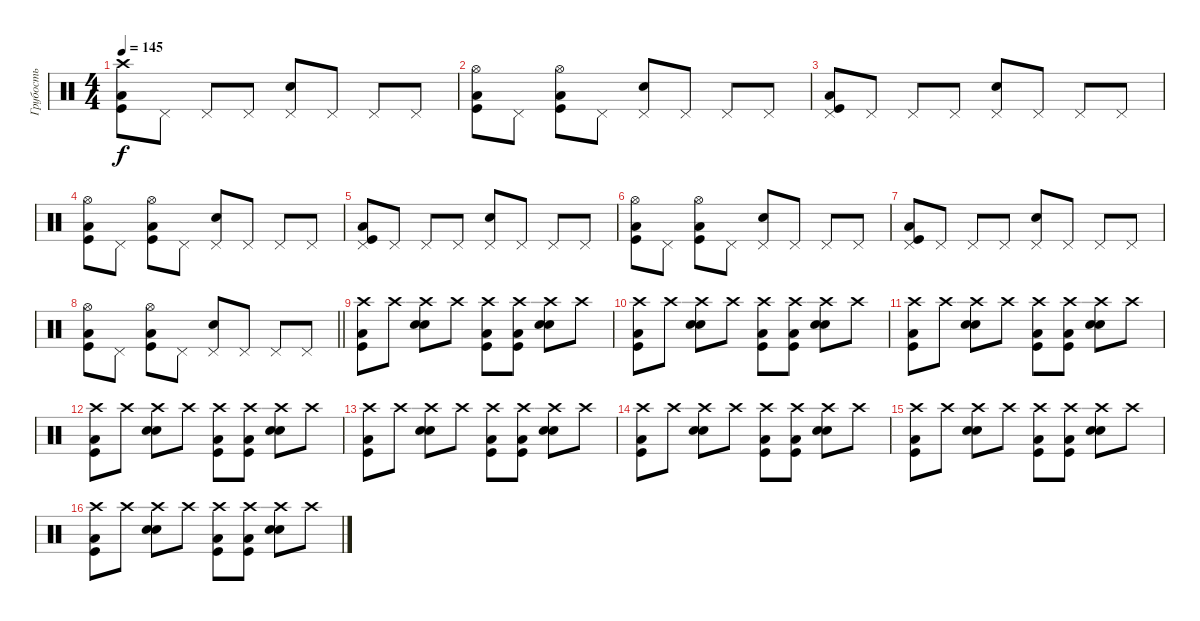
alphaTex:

\track ("Грубость" "Грубость") {instrument percussion}
\staff {score}
\articulation defaults
\ts (4 4)
\tempo 145
\clef neutral
\ks c
("Crash high (hit)" "Low Tom (hit)" "Kick (hit)").8{dy f} "Pedal Hi-Hat (hit)".8 "Pedal Hi-Hat (hit)".8 "Pedal Hi-Hat (hit)".8 ("Pedal Hi-Hat (hit)" "Electric Snare (hit)").8 "Pedal Hi-Hat (hit)".8 "Pedal Hi-Hat (hit)".8 "Pedal Hi-Hat (hit)".8 |
("Hi-Hat (open)" "Low Tom (hit)" "Kick (hit)").8 "Pedal Hi-Hat (hit)".8 ("Hi-Hat (open)" "Low Tom (hit)" "Kick (hit)").8 "Pedal Hi-Hat (hit)".8 ("Pedal Hi-Hat (hit)" "Electric Snare (hit)").8 "Pedal Hi-Hat (hit)".8 "Pedal Hi-Hat (hit)".8 "Pedal Hi-Hat (hit)".8 |
("Pedal Hi-Hat (hit)" "Low Tom (hit)" "Kick (hit)").8 "Pedal Hi-Hat (hit)".8 "Pedal Hi-Hat (hit)".8 "Pedal Hi-Hat (hit)".8 ("Pedal Hi-Hat (hit)" "Electric Snare (hit)").8 "Pedal Hi-Hat (hit)".8 "Pedal Hi-Hat (hit)".8 "Pedal Hi-Hat (hit)".8 |
("Hi-Hat (open)" "Low Tom (hit)" "Kick (hit)").8 "Pedal Hi-Hat (hit)".8 ("Hi-Hat (open)" "Low Tom (hit)" "Kick (hit)").8 "Pedal Hi-Hat (hit)".8 ("Pedal Hi-Hat (hit)" "Electric Snare (hit)").8 "Pedal Hi-Hat (hit)".8 "Pedal Hi-Hat (hit)".8 "Pedal Hi-Hat (hit)".8 |
("Pedal Hi-Hat (hit)" "Low Tom (hit)" "Kick (hit)").8 "Pedal Hi-Hat (hit)".8 "Pedal Hi-Hat (hit)".8 "Pedal Hi-Hat (hit)".8 ("Pedal Hi-Hat (hit)" "Electric Snare (hit)").8 "Pedal Hi-Hat (hit)".8 "Pedal Hi-Hat (hit)".8 "Pedal Hi-Hat (hit)".8 |
("Hi-Hat (open)" "Low Tom (hit)" "Kick (hit)").8 "Pedal Hi-Hat (hit)".8 ("Hi-Hat (open)" "Low Tom (hit)" "Kick (hit)").8 "Pedal Hi-Hat (hit)".8 ("Pedal Hi-Hat (hit)" "Electric Snare (hit)").8 "Pedal Hi-Hat (hit)".8 "Pedal Hi-Hat (hit)".8 "Pedal Hi-Hat (hit)".8 |
("Pedal Hi-Hat (hit)" "Low Tom (hit)" "Kick (hit)").8 "Pedal Hi-Hat (hit)".8 "Pedal Hi-Hat (hit)".8 "Pedal Hi-Hat (hit)".8 ("Pedal Hi-Hat (hit)" "Electric Snare (hit)").8 "Pedal Hi-Hat (hit)".8 "Pedal Hi-Hat (hit)".8 "Pedal Hi-Hat (hit)".8 |
\barLineRight lightlight
("Hi-Hat (open)" "Low Tom (hit)" "Kick (hit)").8 "Pedal Hi-Hat (hit)".8 ("Hi-Hat (open)" "Low Tom (hit)" "Kick (hit)").8 "Pedal Hi-Hat (hit)".8 ("Pedal Hi-Hat (hit)" "Electric Snare (hit)").8 "Pedal Hi-Hat (hit)".8 "Pedal Hi-Hat (hit)".8 "Pedal Hi-Hat (hit)".8 |
("Crash high (hit)" "Low Tom (hit)" "Kick (hit)").8 "Crash high (hit)".8 ("Crash high (hit)" "Electric Snare (hit)" "Snare (hit) 2").8 "Crash high (hit)".8 ("Crash high (hit)" "Low Tom (hit)" "Kick (hit)").8 ("Crash high (hit)" "Low Tom (hit)" "Kick (hit)").8 ("Crash high (hit)" "Electric Snare (hit)" "Snare (hit) 2").8 "Crash high (hit)".8 |
("Crash high (hit)" "Low Tom (hit)" "Kick (hit)").8 "Crash high (hit)".8 ("Crash high (hit)" "Electric Snare (hit)" "Snare (hit) 2").8 "Crash high (hit)".8 ("Crash high (hit)" "Low Tom (hit)" "Kick (hit)").8 ("Crash high (hit)" "Low Tom (hit)" "Kick (hit)").8 ("Crash high (hit)" "Electric Snare (hit)" "Snare (hit) 2").8 "Crash high (hit)".8 |
("Crash high (hit)" "Low Tom (hit)" "Kick (hit)").8 "Crash high (hit)".8 ("Crash high (hit)" "Electric Snare (hit)" "Snare (hit) 2").8 "Crash high (hit)".8 ("Crash high (hit)" "Low Tom (hit)" "Kick (hit)").8 ("Crash high (hit)" "Low Tom (hit)" "Kick (hit)").8 ("Crash high (hit)" "Electric Snare (hit)" "Snare (hit) 2").8 "Crash high (hit)".8 |
("Crash high (hit)" "Low Tom (hit)" "Kick (hit)").8 "Crash high (hit)".8 ("Crash high (hit)" "Electric Snare (hit)" "Snare (hit) 2").8 "Crash high (hit)".8 ("Crash high (hit)" "Low Tom (hit)" "Kick (hit)").8 ("Crash high (hit)" "Low Tom (hit)" "Kick (hit)").8 ("Crash high (hit)" "Electric Snare (hit)" "Snare (hit) 2").8 "Crash high (hit)".8 |
("Crash high (hit)" "Low Tom (hit)" "Kick (hit)").8 "Crash high (hit)".8 ("Crash high (hit)" "Electric Snare (hit)" "Snare (hit) 2").8 "Crash high (hit)".8 ("Crash high (hit)" "Low Tom (hit)" "Kick (hit)").8 ("Crash high (hit)" "Low Tom (hit)" "Kick (hit)").8 ("Crash high (hit)" "Electric Snare (hit)" "Snare (hit) 2").8 "Crash high (hit)".8 |
("Crash high (hit)" "Low Tom (hit)" "Kick (hit)").8 "Crash high (hit)".8 ("Crash high (hit)" "Electric Snare (hit)" "Snare (hit) 2").8 "Crash high (hit)".8 ("Crash high (hit)" "Low Tom (hit)" "Kick (hit)").8 ("Crash high (hit)" "Low Tom (hit)" "Kick (hit)").8 ("Crash high (hit)" "Electric Snare (hit)" "Snare (hit) 2").8 "Crash high (hit)".8 |
("Crash high (hit)" "Low Tom (hit)" "Kick (hit)").8 "Crash high (hit)".8 ("Crash high (hit)" "Electric Snare (hit)" "Snare (hit) 2").8 "Crash high (hit)".8 ("Crash high (hit)" "Low Tom (hit)" "Kick (hit)").8 ("Crash high (hit)" "Low Tom (hit)" "Kick (hit)").8 ("Crash high (hit)" "Electric Snare (hit)" "Snare (hit) 2").8 "Crash high (hit)".8 |
("Crash high (hit)" "Low Tom (hit)" "Kick (hit)").8 "Crash high (hit)".8 ("Crash high (hit)" "Electric Snare (hit)" "Snare (hit) 2").8 "Crash high (hit)".8 ("Crash high (hit)" "Low Tom (hit)" "Kick (hit)").8 ("Crash high (hit)" "Low Tom (hit)" "Kick (hit)").8 ("Crash high (hit)" "Electric Snare (hit)" "Snare (hit) 2").8 "Crash high (hit)".8
